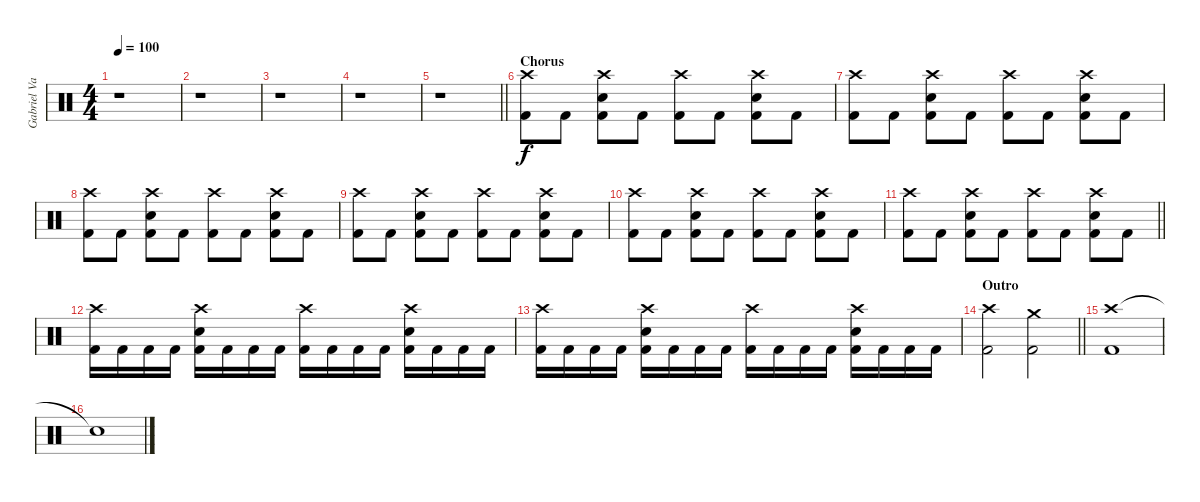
\track ("Gabriel Valerio" "Gabriel Va") {instrument percussion}
\staff {score}
\articulation defaults
\ts (4 4)
\tempo 100
\clef neutral
\ks c
r.1{dy f} |
r.1 |
r.1 |
r.1 |
\barLineRight lightlight
r.1 |
\section ("" "Chorus")
("Crash high (hit)" "Kick (hit) 2").8 "Kick (hit) 2".8 ("Crash high (hit)" "Snare (hit) 2" "Kick (hit) 2").8 "Kick (hit) 2".8 ("Crash high (hit)" "Kick (hit) 2").8 "Kick (hit) 2".8 ("Crash high (hit)" "Snare (hit) 2" "Kick (hit) 2").8 "Kick (hit) 2".8 |
("Crash high (hit)" "Kick (hit) 2").8 "Kick (hit) 2".8 ("Crash high (hit)" "Snare (hit) 2" "Kick (hit) 2").8 "Kick (hit) 2".8 ("Crash high (hit)" "Kick (hit) 2").8 "Kick (hit) 2".8 ("Crash high (hit)" "Snare (hit) 2" "Kick (hit) 2").8 "Kick (hit) 2".8 |
("Crash high (hit)" "Kick (hit) 2").8 "Kick (hit) 2".8 ("Crash high (hit)" "Snare (hit) 2" "Kick (hit) 2").8 "Kick (hit) 2".8 ("Crash high (hit)" "Kick (hit) 2").8 "Kick (hit) 2".8 ("Crash high (hit)" "Snare (hit) 2" "Kick (hit) 2").8 "Kick (hit) 2".8 |
("Crash high (hit)" "Kick (hit) 2").8 "Kick (hit) 2".8 ("Crash high (hit)" "Snare (hit) 2" "Kick (hit) 2").8 "Kick (hit) 2".8 ("Crash high (hit)" "Kick (hit) 2").8 "Kick (hit) 2".8 ("Crash high (hit)" "Snare (hit) 2" "Kick (hit) 2").8 "Kick (hit) 2".8 |
("Crash high (hit)" "Kick (hit) 2").8 "Kick (hit) 2".8 ("Crash high (hit)" "Snare (hit) 2" "Kick (hit) 2").8 "Kick (hit) 2".8 ("Crash high (hit)" "Kick (hit) 2").8 "Kick (hit) 2".8 ("Crash high (hit)" "Snare (hit) 2" "Kick (hit) 2").8 "Kick (hit) 2".8 |
\barLineRight lightlight
("Crash high (hit)" "Kick (hit) 2").8 "Kick (hit) 2".8 ("Crash high (hit)" "Snare (hit) 2" "Kick (hit) 2").8 "Kick (hit) 2".8 ("Crash high (hit)" "Kick (hit) 2").8 "Kick (hit) 2".8 ("Crash high (hit)" "Snare (hit) 2" "Kick (hit) 2").8 "Kick (hit) 2".8 |
("Crash high (hit)" "Kick (hit) 2").16 "Kick (hit) 2".16 "Kick (hit) 2".16 "Kick (hit) 2".16 ("Crash high (hit)" "Snare (hit) 2" "Kick (hit) 2").16 "Kick (hit) 2".16 "Kick (hit) 2".16 "Kick (hit) 2".16 ("Crash high (hit)" "Kick (hit) 2").16 "Kick (hit) 2".16 "Kick (hit) 2".16 "Kick (hit) 2".16 ("Crash high (hit)" "Snare (hit) 2" "Kick (hit) 2").16 "Kick (hit) 2".16 "Kick (hit) 2".16 "Kick (hit) 2".16 |
("Crash high (hit)" "Kick (hit) 2").16 "Kick (hit) 2".16 "Kick (hit) 2".16 "Kick (hit) 2".16 ("Crash high (hit)" "Snare (hit) 2" "Kick (hit) 2").16 "Kick (hit) 2".16 "Kick (hit) 2".16 "Kick (hit) 2".16 ("Crash high (hit)" "Kick (hit) 2").16 "Kick (hit) 2".16 "Kick (hit) 2".16 "Kick (hit) 2".16 ("Crash high (hit)" "Snare (hit) 2" "Kick (hit) 2").16 "Kick (hit) 2".16 "Kick (hit) 2".16 "Kick (hit) 2".16 |
\section ("" "Outro")
\barLineRight lightlight
("Crash high (hit)" "Kick (hit) 2").2 ("Crash medium (hit)" "Kick (hit) 2").2 |
("Crash high (hit)" "Kick (hit) 2").1 |
"Snare (hit)"{t}.1
